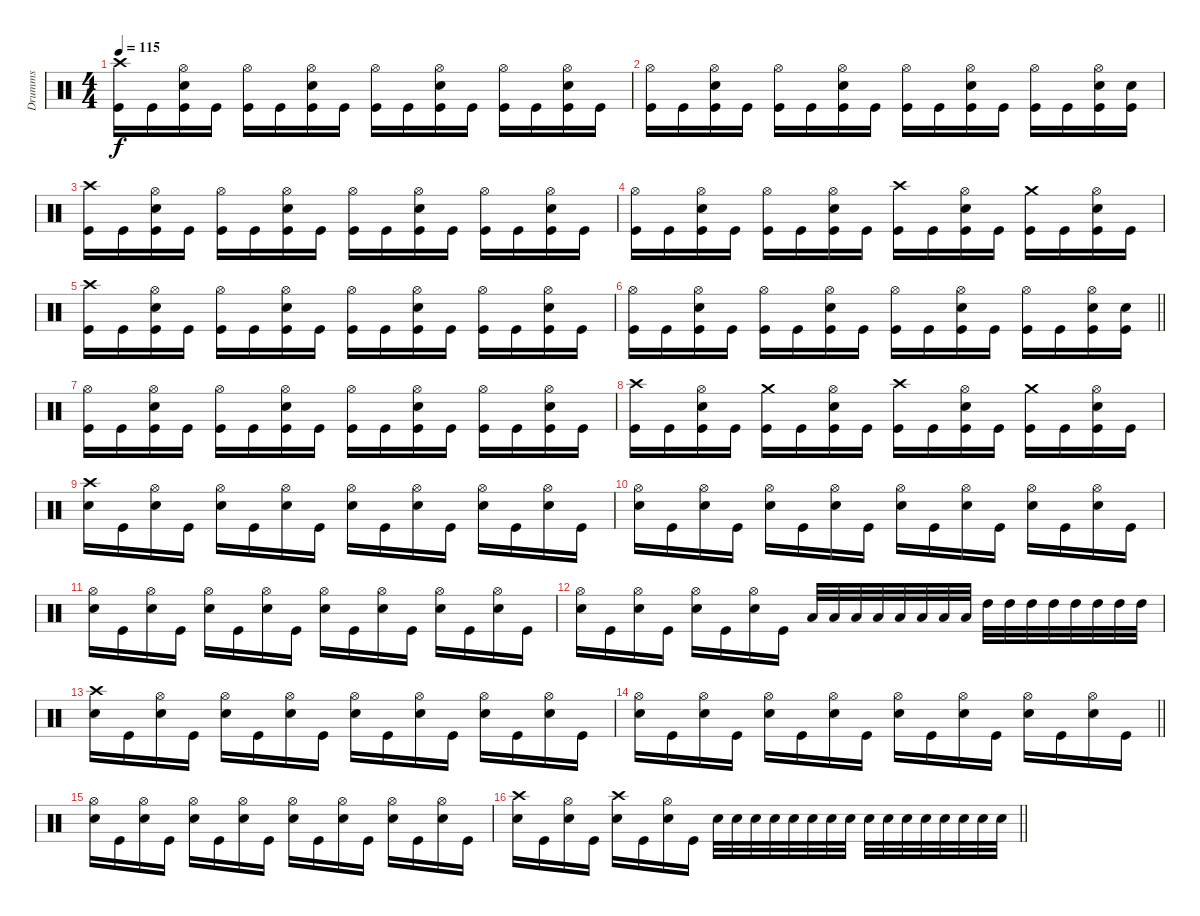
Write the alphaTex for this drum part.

\track ("Drumms" "Drumms") {instrument percussion}
\staff {score}
\articulation defaults
\ts (4 4)
\tempo 115
\clef neutral
\ks c
("Crash high (hit)" "Kick (hit)").16{dy f} "Kick (hit)".16 ("Hi-Hat (open)" "Snare (hit) 2" "Kick (hit)").16 "Kick (hit)".16 ("Hi-Hat (open)" "Kick (hit)").16 "Kick (hit)".16 ("Hi-Hat (open)" "Snare (hit) 2" "Kick (hit)").16 "Kick (hit)".16 ("Hi-Hat (open)" "Kick (hit)").16 "Kick (hit)".16 ("Hi-Hat (open)" "Snare (hit) 2" "Kick (hit)").16 "Kick (hit)".16 ("Hi-Hat (open)" "Kick (hit)").16 "Kick (hit)".16 ("Hi-Hat (open)" "Snare (hit) 2" "Kick (hit)").16 "Kick (hit)".16 |
("Hi-Hat (open)" "Kick (hit)").16 "Kick (hit)".16 ("Hi-Hat (open)" "Snare (hit) 2" "Kick (hit)").16 "Kick (hit)".16 ("Hi-Hat (open)" "Kick (hit)").16 "Kick (hit)".16 ("Hi-Hat (open)" "Snare (hit) 2" "Kick (hit)").16 "Kick (hit)".16 ("Hi-Hat (open)" "Kick (hit)").16 "Kick (hit)".16 ("Hi-Hat (open)" "Snare (hit) 2" "Kick (hit)").16 "Kick (hit)".16 ("Hi-Hat (open)" "Kick (hit)").16 "Kick (hit)".16 ("Hi-Hat (open)" "Snare (hit) 2" "Kick (hit)").16 ("Snare (hit) 2" "Kick (hit)").16 |
("Crash high (hit)" "Kick (hit)").16 "Kick (hit)".16 ("Hi-Hat (open)" "Snare (hit) 2" "Kick (hit)").16 "Kick (hit)".16 ("Hi-Hat (open)" "Kick (hit)").16 "Kick (hit)".16 ("Hi-Hat (open)" "Snare (hit) 2" "Kick (hit)").16 "Kick (hit)".16 ("Hi-Hat (open)" "Kick (hit)").16 "Kick (hit)".16 ("Hi-Hat (open)" "Snare (hit) 2" "Kick (hit)").16 "Kick (hit)".16 ("Hi-Hat (open)" "Kick (hit)").16 "Kick (hit)".16 ("Hi-Hat (open)" "Snare (hit) 2" "Kick (hit)").16 "Kick (hit)".16 |
("Hi-Hat (open)" "Kick (hit)").16 "Kick (hit)".16 ("Hi-Hat (open)" "Snare (hit) 2" "Kick (hit)").16 "Kick (hit)".16 ("Hi-Hat (open)" "Kick (hit)").16 "Kick (hit)".16 ("Hi-Hat (open)" "Snare (hit) 2" "Kick (hit)").16 "Kick (hit)".16 ("Crash high (hit)" "Kick (hit)").16 "Kick (hit)".16 ("Hi-Hat (open)" "Snare (hit) 2" "Kick (hit)").16 "Kick (hit)".16 ("Crash medium (hit)" "Kick (hit)").16 "Kick (hit)".16 ("Hi-Hat (open)" "Snare (hit) 2" "Kick (hit)").16 "Kick (hit)".16 |
("Crash high (hit)" "Kick (hit)").16 "Kick (hit)".16 ("Hi-Hat (open)" "Snare (hit) 2" "Kick (hit)").16 "Kick (hit)".16 ("Hi-Hat (open)" "Kick (hit)").16 "Kick (hit)".16 ("Hi-Hat (open)" "Snare (hit) 2" "Kick (hit)").16 "Kick (hit)".16 ("Hi-Hat (open)" "Kick (hit)").16 "Kick (hit)".16 ("Hi-Hat (open)" "Snare (hit) 2" "Kick (hit)").16 "Kick (hit)".16 ("Hi-Hat (open)" "Kick (hit)").16 "Kick (hit)".16 ("Hi-Hat (open)" "Snare (hit) 2" "Kick (hit)").16 "Kick (hit)".16 |
\barLineRight lightlight
("Hi-Hat (open)" "Kick (hit)").16 "Kick (hit)".16 ("Hi-Hat (open)" "Snare (hit) 2" "Kick (hit)").16 "Kick (hit)".16 ("Hi-Hat (open)" "Kick (hit)").16 "Kick (hit)".16 ("Hi-Hat (open)" "Snare (hit) 2" "Kick (hit)").16 "Kick (hit)".16 ("Hi-Hat (open)" "Kick (hit)").16 "Kick (hit)".16 ("Hi-Hat (open)" "Snare (hit) 2" "Kick (hit)").16 "Kick (hit)".16 ("Hi-Hat (open)" "Kick (hit)").16 "Kick (hit)".16 ("Hi-Hat (open)" "Snare (hit) 2" "Kick (hit)").16 ("Snare (hit) 2" "Kick (hit)").16 |
("Hi-Hat (open)" "Kick (hit)").16 "Kick (hit)".16 ("Hi-Hat (open)" "Snare (hit) 2" "Kick (hit)").16 "Kick (hit)".16 ("Hi-Hat (open)" "Kick (hit)").16 "Kick (hit)".16 ("Hi-Hat (open)" "Snare (hit) 2" "Kick (hit)").16 "Kick (hit)".16 ("Hi-Hat (open)" "Kick (hit)").16 "Kick (hit)".16 ("Hi-Hat (open)" "Snare (hit) 2" "Kick (hit)").16 "Kick (hit)".16 ("Hi-Hat (open)" "Kick (hit)").16 "Kick (hit)".16 ("Hi-Hat (open)" "Snare (hit) 2" "Kick (hit)").16 "Kick (hit)".16 |
("Crash high (hit)" "Kick (hit)").16 "Kick (hit)".16 ("Hi-Hat (open)" "Snare (hit) 2" "Kick (hit)").16 "Kick (hit)".16 ("Crash medium (hit)" "Kick (hit)").16 "Kick (hit)".16 ("Hi-Hat (open)" "Snare (hit) 2" "Kick (hit)").16 "Kick (hit)".16 ("Crash high (hit)" "Kick (hit)").16 "Kick (hit)".16 ("Hi-Hat (open)" "Snare (hit) 2" "Kick (hit)").16 "Kick (hit)".16 ("Crash medium (hit)" "Kick (hit)").16 "Kick (hit)".16 ("Hi-Hat (open)" "Snare (hit) 2" "Kick (hit)").16 "Kick (hit)".16 |
("Crash high (hit)" "Snare (hit) 2").16 "Kick (hit)".16 ("Hi-Hat (open)" "Snare (hit) 2").16 "Kick (hit)".16 ("Hi-Hat (open)" "Snare (hit) 2").16 "Kick (hit)".16 ("Hi-Hat (open)" "Snare (hit) 2").16 "Kick (hit)".16 ("Hi-Hat (open)" "Snare (hit) 2").16 "Kick (hit)".16 ("Hi-Hat (open)" "Snare (hit) 2").16 "Kick (hit)".16 ("Hi-Hat (open)" "Snare (hit) 2").16 "Kick (hit)".16 ("Hi-Hat (open)" "Snare (hit) 2").16 "Kick (hit)".16 |
("Hi-Hat (open)" "Snare (hit) 2").16 "Kick (hit)".16 ("Hi-Hat (open)" "Snare (hit) 2").16 "Kick (hit)".16 ("Hi-Hat (open)" "Snare (hit) 2").16 "Kick (hit)".16 ("Hi-Hat (open)" "Snare (hit) 2").16 "Kick (hit)".16 ("Hi-Hat (open)" "Snare (hit) 2").16 "Kick (hit)".16 ("Hi-Hat (open)" "Snare (hit) 2").16 "Kick (hit)".16 ("Hi-Hat (open)" "Snare (hit) 2").16 "Kick (hit)".16 ("Hi-Hat (open)" "Snare (hit) 2").16 "Kick (hit)".16 |
("Hi-Hat (open)" "Snare (hit) 2").16 "Kick (hit)".16 ("Hi-Hat (open)" "Snare (hit) 2").16 "Kick (hit)".16 ("Hi-Hat (open)" "Snare (hit) 2").16 "Kick (hit)".16 ("Hi-Hat (open)" "Snare (hit) 2").16 "Kick (hit)".16 ("Hi-Hat (open)" "Snare (hit) 2").16 "Kick (hit)".16 ("Hi-Hat (open)" "Snare (hit) 2").16 "Kick (hit)".16 ("Hi-Hat (open)" "Snare (hit) 2").16 "Kick (hit)".16 ("Hi-Hat (open)" "Snare (hit) 2").16 "Kick (hit)".16 |
("Hi-Hat (open)" "Snare (hit) 2").16 "Kick (hit)".16 ("Hi-Hat (open)" "Snare (hit) 2").16 "Kick (hit)".16 ("Hi-Hat (open)" "Snare (hit) 2").16 "Kick (hit)".16 ("Hi-Hat (open)" "Snare (hit) 2").16 "Kick (hit)".16 "Low Tom (hit)".32 "Low Tom (hit)".32 "Low Tom (hit)".32 "Low Tom (hit)".32 "Low Tom (hit)".32 "Low Tom (hit)".32 "Low Tom (hit)".32 "Low Tom (hit)".32 "High Tom (hit)".32 "High Tom (hit)".32 "High Tom (hit)".32 "High Tom (hit)".32 "High Tom (hit)".32 "High Tom (hit)".32 "High Tom (hit)".32 "High Tom (hit)".32 |
("Crash high (hit)" "Snare (hit) 2").16 "Kick (hit)".16 ("Hi-Hat (open)" "Snare (hit) 2").16 "Kick (hit)".16 ("Hi-Hat (open)" "Snare (hit) 2").16 "Kick (hit)".16 ("Hi-Hat (open)" "Snare (hit) 2").16 "Kick (hit)".16 ("Hi-Hat (open)" "Snare (hit) 2").16 "Kick (hit)".16 ("Hi-Hat (open)" "Snare (hit) 2").16 "Kick (hit)".16 ("Hi-Hat (open)" "Snare (hit) 2").16 "Kick (hit)".16 ("Hi-Hat (open)" "Snare (hit) 2").16 "Kick (hit)".16 |
\barLineRight lightlight
("Hi-Hat (open)" "Snare (hit) 2").16 "Kick (hit)".16 ("Hi-Hat (open)" "Snare (hit) 2").16 "Kick (hit)".16 ("Hi-Hat (open)" "Snare (hit) 2").16 "Kick (hit)".16 ("Hi-Hat (open)" "Snare (hit) 2").16 "Kick (hit)".16 ("Hi-Hat (open)" "Snare (hit) 2").16 "Kick (hit)".16 ("Hi-Hat (open)" "Snare (hit) 2").16 "Kick (hit)".16 ("Hi-Hat (open)" "Snare (hit) 2").16 "Kick (hit)".16 ("Hi-Hat (open)" "Snare (hit) 2").16 "Kick (hit)".16 |
("Hi-Hat (open)" "Snare (hit) 2").16 "Kick (hit)".16 ("Hi-Hat (open)" "Snare (hit) 2").16 "Kick (hit)".16 ("Hi-Hat (open)" "Snare (hit) 2").16 "Kick (hit)".16 ("Hi-Hat (open)" "Snare (hit) 2").16 "Kick (hit)".16 ("Hi-Hat (open)" "Snare (hit) 2").16 "Kick (hit)".16 ("Hi-Hat (open)" "Snare (hit) 2").16 "Kick (hit)".16 ("Hi-Hat (open)" "Snare (hit) 2").16 "Kick (hit)".16 ("Hi-Hat (open)" "Snare (hit) 2").16 "Kick (hit)".16 |
\barLineRight lightlight
("Crash high (hit)" "Snare (hit) 2").16 "Kick (hit)".16 ("Hi-Hat (open)" "Snare (hit) 2").16 "Kick (hit)".16 ("Crash high (hit)" "Snare (hit) 2").16 "Kick (hit)".16 ("Hi-Hat (open)" "Snare (hit) 2").16 "Kick (hit)".16 "Snare (hit) 2".32 "Snare (hit) 2".32 "Snare (hit) 2".32 "Snare (hit) 2".32 "Snare (hit) 2".32 "Snare (hit) 2".32 "Snare (hit) 2".32 "Snare (hit) 2".32 "Snare (hit) 2".32 "Snare (hit) 2".32 "Snare (hit) 2".32 "Snare (hit) 2".32 "Snare (hit) 2".32 "Snare (hit) 2".32 "Snare (hit) 2".32 "Snare (hit) 2".32
